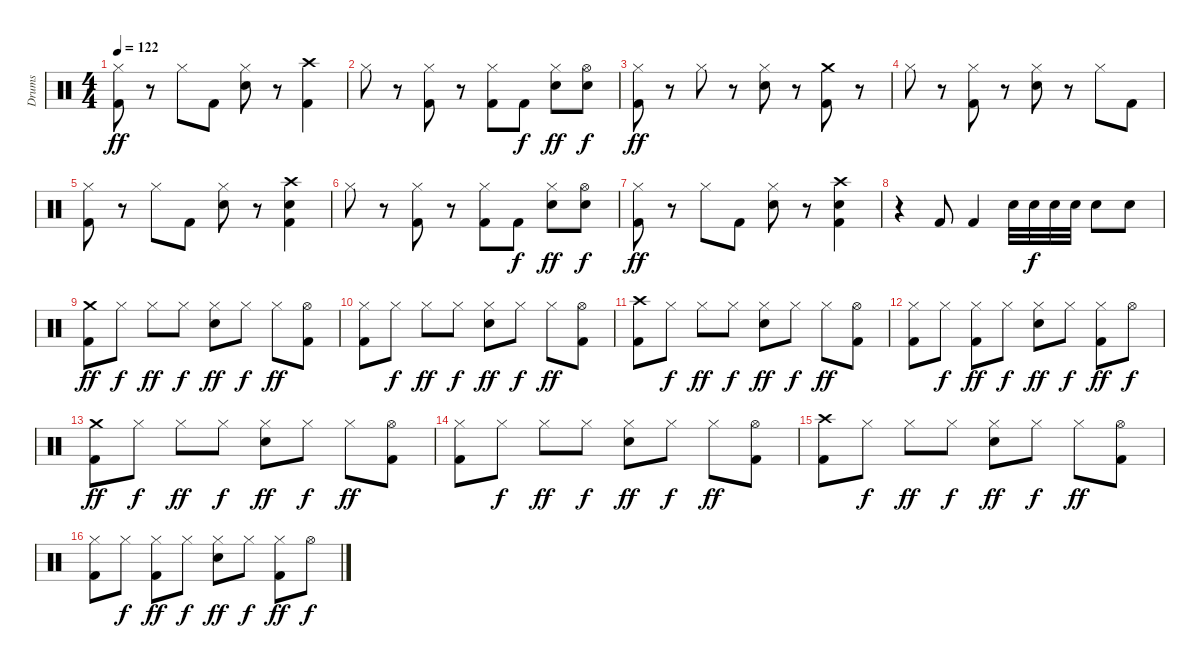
\track ("Drums" "Drums") {instrument percussion}
\staff {score}
\articulation defaults
\ts (4 4)
\tempo 122
\clef neutral
\ks c
("Hi-Hat (closed)" "Kick (hit) 2").8{dy ff} r.8 "Hi-Hat (closed)".8 "Kick (hit) 2".8 ("Hi-Hat (closed)" "Snare (hit) 2").8 r.8 ("Crash high (hit)" "Kick (hit) 2").4 |
"Hi-Hat (closed)".8 r.8 ("Hi-Hat (closed)" "Kick (hit) 2").8 r.8 ("Hi-Hat (closed)" "Kick (hit) 2").8 "Kick (hit) 2".8{dy f} ("Hi-Hat (closed)" "Snare (hit) 2").8{dy ff} ("Hi-Hat (open)" "Snare (hit) 2").8{dy f} |
("Hi-Hat (closed)" "Kick (hit) 2").8{dy ff} r.8 "Hi-Hat (closed)".8 r.8 ("Hi-Hat (closed)" "Snare (hit) 2").8 r.8 ("Crash medium (hit)" "Kick (hit) 2").8 r.8 |
"Hi-Hat (closed)".8 r.8 ("Hi-Hat (closed)" "Kick (hit) 2").8 r.8 ("Hi-Hat (closed)" "Snare (hit) 2").8 r.8 "Hi-Hat (closed)".8 "Kick (hit) 2".8 |
("Hi-Hat (closed)" "Kick (hit) 2").8 r.8 "Hi-Hat (closed)".8 "Kick (hit) 2".8 ("Hi-Hat (closed)" "Snare (hit) 2").8 r.8 ("Crash high (hit)" "Snare (hit) 2" "Kick (hit) 2").4 |
"Hi-Hat (closed)".8 r.8 ("Hi-Hat (closed)" "Kick (hit) 2").8 r.8 ("Hi-Hat (closed)" "Kick (hit) 2").8 "Kick (hit) 2".8{dy f} ("Hi-Hat (closed)" "Snare (hit) 2").8{dy ff} ("Hi-Hat (open)" "Snare (hit) 2").8{dy f} |
("Hi-Hat (closed)" "Kick (hit) 2").8{dy ff} r.8 "Hi-Hat (closed)".8 "Kick (hit) 2".8 ("Hi-Hat (closed)" "Snare (hit) 2").8 r.8 ("Crash high (hit)" "Snare (hit) 2" "Kick (hit) 2").4 |
r.4 "Kick (hit) 2".8 "Kick (hit) 2".4 "Snare (hit) 2".32 "Snare (hit) 2".32{dy f} "Snare (hit) 2".32 "Snare (hit) 2".32 "Snare (hit) 2".8 "Snare (hit) 2".8 |
("Crash medium (hit)" "Kick (hit) 2").8{dy ff} "Hi-Hat (closed)".8{dy f} "Hi-Hat (closed)".8{dy ff} "Hi-Hat (closed)".8{dy f} ("Hi-Hat (closed)" "Snare (hit) 2").8{dy ff} "Hi-Hat (closed)".8{dy f} "Hi-Hat (closed)".8{dy ff} ("Hi-Hat (open)" "Kick (hit) 2").8 |
("Hi-Hat (closed)" "Kick (hit) 2").8 "Hi-Hat (closed)".8{dy f} "Hi-Hat (closed)".8{dy ff} "Hi-Hat (closed)".8{dy f} ("Hi-Hat (closed)" "Snare (hit) 2").8{dy ff} "Hi-Hat (closed)".8{dy f} "Hi-Hat (closed)".8{dy ff} ("Hi-Hat (open)" "Kick (hit) 2").8 |
("Crash high (hit)" "Kick (hit) 2").8 "Hi-Hat (closed)".8{dy f} "Hi-Hat (closed)".8{dy ff} "Hi-Hat (closed)".8{dy f} ("Hi-Hat (closed)" "Snare (hit) 2").8{dy ff} "Hi-Hat (closed)".8{dy f} "Hi-Hat (closed)".8{dy ff} ("Hi-Hat (open)" "Kick (hit) 2").8 |
("Hi-Hat (closed)" "Kick (hit) 2").8 "Hi-Hat (closed)".8{dy f} ("Hi-Hat (closed)" "Kick (hit) 2").8{dy ff} "Hi-Hat (closed)".8{dy f} ("Hi-Hat (closed)" "Snare (hit) 2").8{dy ff} "Hi-Hat (closed)".8{dy f} ("Hi-Hat (closed)" "Kick (hit) 2").8{dy ff} "Hi-Hat (open)".8{dy f} |
("Crash medium (hit)" "Kick (hit) 2").8{dy ff} "Hi-Hat (closed)".8{dy f} "Hi-Hat (closed)".8{dy ff} "Hi-Hat (closed)".8{dy f} ("Hi-Hat (closed)" "Snare (hit) 2").8{dy ff} "Hi-Hat (closed)".8{dy f} "Hi-Hat (closed)".8{dy ff} ("Hi-Hat (open)" "Kick (hit) 2").8 |
("Hi-Hat (closed)" "Kick (hit) 2").8 "Hi-Hat (closed)".8{dy f} "Hi-Hat (closed)".8{dy ff} "Hi-Hat (closed)".8{dy f} ("Hi-Hat (closed)" "Snare (hit) 2").8{dy ff} "Hi-Hat (closed)".8{dy f} "Hi-Hat (closed)".8{dy ff} ("Hi-Hat (open)" "Kick (hit) 2").8 |
("Crash high (hit)" "Kick (hit) 2").8 "Hi-Hat (closed)".8{dy f} "Hi-Hat (closed)".8{dy ff} "Hi-Hat (closed)".8{dy f} ("Hi-Hat (closed)" "Snare (hit) 2").8{dy ff} "Hi-Hat (closed)".8{dy f} "Hi-Hat (closed)".8{dy ff} ("Hi-Hat (open)" "Kick (hit) 2").8 |
("Hi-Hat (closed)" "Kick (hit) 2").8 "Hi-Hat (closed)".8{dy f} ("Hi-Hat (closed)" "Kick (hit) 2").8{dy ff} "Hi-Hat (closed)".8{dy f} ("Hi-Hat (closed)" "Snare (hit) 2").8{dy ff} "Hi-Hat (closed)".8{dy f} ("Hi-Hat (closed)" "Kick (hit) 2").8{dy ff} "Hi-Hat (open)".8{dy f}
